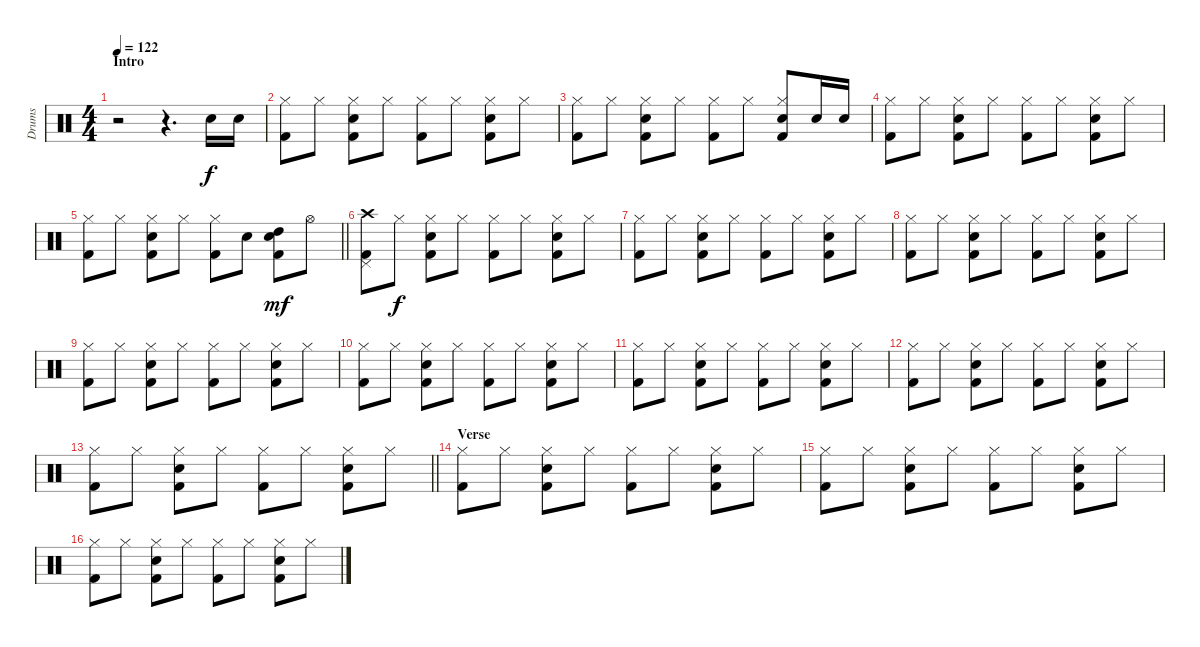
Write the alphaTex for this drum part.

\track ("Drums" "Drums") {instrument percussion}
\staff {score}
\articulation defaults
\ts (4 4)
\section ("" "Intro")
\tempo 122
\clef neutral
\ks c
r.2{dy f} r.4{d} "Electric Snare (hit)".16 "Electric Snare (hit)".16 |
("Hi-Hat (closed)" "Kick (hit) 2").8 "Hi-Hat (closed)".8 ("Hi-Hat (closed)" "Electric Snare (hit)" "Kick (hit) 2").8 "Hi-Hat (closed)".8 ("Hi-Hat (closed)" "Kick (hit) 2").8 "Hi-Hat (closed)".8 ("Hi-Hat (closed)" "Electric Snare (hit)" "Kick (hit) 2").8 "Hi-Hat (closed)".8 |
("Hi-Hat (closed)" "Kick (hit) 2").8 "Hi-Hat (closed)".8 ("Hi-Hat (closed)" "Electric Snare (hit)" "Kick (hit) 2").8 "Hi-Hat (closed)".8 ("Hi-Hat (closed)" "Kick (hit) 2").8 "Hi-Hat (closed)".8 ("Hi-Hat (closed)" "Electric Snare (hit)" "Kick (hit) 2").8 "Electric Snare (hit)".16 "Electric Snare (hit)".16 |
("Hi-Hat (closed)" "Kick (hit) 2").8 "Hi-Hat (closed)".8 ("Hi-Hat (closed)" "Electric Snare (hit)" "Kick (hit) 2").8 "Hi-Hat (closed)".8 ("Hi-Hat (closed)" "Kick (hit) 2").8 "Hi-Hat (closed)".8 ("Hi-Hat (closed)" "Electric Snare (hit)" "Kick (hit) 2").8 "Hi-Hat (closed)".8 |
\barLineRight lightlight
("Hi-Hat (closed)" "Kick (hit) 2").8 "Hi-Hat (closed)".8 ("Hi-Hat (closed)" "Electric Snare (hit)" "Kick (hit) 2").8 "Hi-Hat (closed)".8 ("Hi-Hat (closed)" "Kick (hit) 2").8 "Electric Snare (hit)".8 ("High Tom (hit)" "Electric Snare (hit)" "Kick (hit) 2").8{dy mf} "Hi-Hat (open)".8 |
("Crash high (hit)" "Pedal Hi-Hat (hit)" "Kick (hit) 2").8 "Hi-Hat (closed)".8{dy f} ("Hi-Hat (closed)" "Electric Snare (hit)" "Kick (hit) 2").8 "Hi-Hat (closed)".8 ("Hi-Hat (closed)" "Kick (hit) 2").8 "Hi-Hat (closed)".8 ("Hi-Hat (closed)" "Electric Snare (hit)" "Kick (hit) 2").8 "Hi-Hat (closed)".8 |
("Hi-Hat (closed)" "Kick (hit) 2").8 "Hi-Hat (closed)".8 ("Hi-Hat (closed)" "Electric Snare (hit)" "Kick (hit) 2").8 "Hi-Hat (closed)".8 ("Hi-Hat (closed)" "Kick (hit) 2").8 "Hi-Hat (closed)".8 ("Hi-Hat (closed)" "Electric Snare (hit)" "Kick (hit) 2").8 "Hi-Hat (closed)".8 |
("Hi-Hat (closed)" "Kick (hit) 2").8 "Hi-Hat (closed)".8 ("Hi-Hat (closed)" "Electric Snare (hit)" "Kick (hit) 2").8 "Hi-Hat (closed)".8 ("Hi-Hat (closed)" "Kick (hit) 2").8 "Hi-Hat (closed)".8 ("Hi-Hat (closed)" "Electric Snare (hit)" "Kick (hit) 2").8 "Hi-Hat (closed)".8 |
("Hi-Hat (closed)" "Kick (hit) 2").8 "Hi-Hat (closed)".8 ("Hi-Hat (closed)" "Electric Snare (hit)" "Kick (hit) 2").8 "Hi-Hat (closed)".8 ("Hi-Hat (closed)" "Kick (hit) 2").8 "Hi-Hat (closed)".8 ("Hi-Hat (closed)" "Electric Snare (hit)" "Kick (hit) 2").8 "Hi-Hat (closed)".8 |
("Hi-Hat (closed)" "Kick (hit) 2").8 "Hi-Hat (closed)".8 ("Hi-Hat (closed)" "Electric Snare (hit)" "Kick (hit) 2").8 "Hi-Hat (closed)".8 ("Hi-Hat (closed)" "Kick (hit) 2").8 "Hi-Hat (closed)".8 ("Hi-Hat (closed)" "Electric Snare (hit)" "Kick (hit) 2").8 "Hi-Hat (closed)".8 |
("Hi-Hat (closed)" "Kick (hit) 2").8 "Hi-Hat (closed)".8 ("Hi-Hat (closed)" "Electric Snare (hit)" "Kick (hit) 2").8 "Hi-Hat (closed)".8 ("Hi-Hat (closed)" "Kick (hit) 2").8 "Hi-Hat (closed)".8 ("Hi-Hat (closed)" "Electric Snare (hit)" "Kick (hit) 2").8 "Hi-Hat (closed)".8 |
("Hi-Hat (closed)" "Kick (hit) 2").8 "Hi-Hat (closed)".8 ("Hi-Hat (closed)" "Electric Snare (hit)" "Kick (hit) 2").8 "Hi-Hat (closed)".8 ("Hi-Hat (closed)" "Kick (hit) 2").8 "Hi-Hat (closed)".8 ("Hi-Hat (closed)" "Electric Snare (hit)" "Kick (hit) 2").8 "Hi-Hat (closed)".8 |
\barLineRight lightlight
("Hi-Hat (closed)" "Kick (hit) 2").8 "Hi-Hat (closed)".8 ("Hi-Hat (closed)" "Electric Snare (hit)" "Kick (hit) 2").8 "Hi-Hat (closed)".8 ("Hi-Hat (closed)" "Kick (hit) 2").8 "Hi-Hat (closed)".8 ("Hi-Hat (closed)" "Electric Snare (hit)" "Kick (hit) 2").8 "Hi-Hat (closed)".8 |
\section ("" "Verse")
("Hi-Hat (closed)" "Kick (hit) 2").8 "Hi-Hat (closed)".8 ("Hi-Hat (closed)" "Electric Snare (hit)" "Kick (hit) 2").8 "Hi-Hat (closed)".8 ("Hi-Hat (closed)" "Kick (hit) 2").8 "Hi-Hat (closed)".8 ("Hi-Hat (closed)" "Electric Snare (hit)" "Kick (hit) 2").8 "Hi-Hat (closed)".8 |
("Hi-Hat (closed)" "Kick (hit) 2").8 "Hi-Hat (closed)".8 ("Hi-Hat (closed)" "Electric Snare (hit)" "Kick (hit) 2").8 "Hi-Hat (closed)".8 ("Hi-Hat (closed)" "Kick (hit) 2").8 "Hi-Hat (closed)".8 ("Hi-Hat (closed)" "Electric Snare (hit)" "Kick (hit) 2").8 "Hi-Hat (closed)".8 |
("Hi-Hat (closed)" "Kick (hit) 2").8 "Hi-Hat (closed)".8 ("Hi-Hat (closed)" "Electric Snare (hit)" "Kick (hit) 2").8 "Hi-Hat (closed)".8 ("Hi-Hat (closed)" "Kick (hit) 2").8 "Hi-Hat (closed)".8 ("Hi-Hat (closed)" "Electric Snare (hit)" "Kick (hit) 2").8 "Hi-Hat (closed)".8
